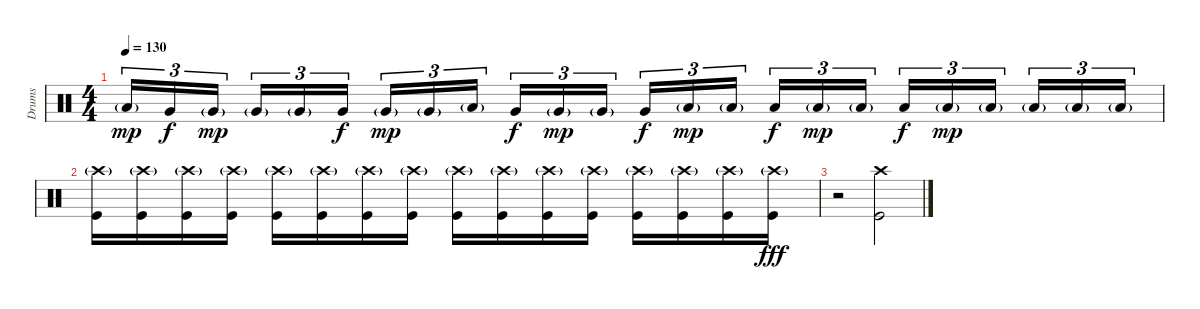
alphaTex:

\track ("Drums" "Drums") {instrument percussion}
\staff {score}
\articulation defaults
\ts (4 4)
\tempo 130
\clef neutral
\ks c "Low Tom (hit)"{g}.16{tu (3 2) dy mp} "Very Low Tom (hit)".16{tu (3 2) dy f} "Very Low Tom (hit)"{g}.16{tu (3 2) dy mp} "Very Low Tom (hit)"{g}.16{tu (3 2)} "Very Low Tom (hit)"{g}.16{tu (3 2)} "Very Low Tom (hit)".16{tu (3 2) dy f} "Very Low Tom (hit)"{g}.16{tu (3 2) dy mp} "Very Low Tom (hit)"{g}.16{tu (3 2)} "Low Floor Tom (hit)"{g}.16{tu (3 2)} "Very Low Tom (hit)".16{tu (3 2) dy f} "Very Low Tom (hit)"{g}.16{tu (3 2) dy mp} "Very Low Tom (hit)"{g}.16{tu (3 2)} "Very Low Tom (hit)".16{tu (3 2) dy f} "Low Floor Tom (hit)"{g}.16{tu (3 2) dy mp} "Low Floor Tom (hit)"{g}.16{tu (3 2)} "Low Floor Tom (hit)".16{tu (3 2) dy f} "Low Floor Tom (hit)"{g}.16{tu (3 2) dy mp} "Low Floor Tom (hit)"{g}.16{tu (3 2)} "Low Floor Tom (hit)".16{tu (3 2) dy f} "Low Floor Tom (hit)"{g}.16{tu (3 2) dy mp} "Low Floor Tom (hit)"{g}.16{tu (3 2)} "Low Floor Tom (hit)"{g}.16{tu (3 2)} "Low Floor Tom (hit)"{g}.16{tu (3 2)} "Low Floor Tom (hit)"{g}.16{tu (3 2)}
|
("Kick (hit)" "Crash high (hit)"{g}).16 ("Kick (hit)" "Crash high (hit)"{g}).16 ("Kick (hit)" "Crash high (hit)"{g}).16 ("Kick (hit)" "Crash high (hit)"{g}).16 ("Kick (hit)" "Crash high (hit)"{g}).16 ("Kick (hit)" "Crash high (hit)"{g}).16 ("Kick (hit)" "Crash high (hit)"{g}).16 ("Kick (hit)" "Crash high (hit)"{g}).16 ("Kick (hit)" "Crash high (hit)"{g}).16 ("Kick (hit)" "Crash high (hit)"{g}).16 ("Kick (hit)" "Crash high (hit)"{g}).16 ("Kick (hit)" "Crash high (hit)"{g}).16 ("Kick (hit)" "Crash high (hit)"{g}).16 ("Kick (hit)" "Crash high (hit)"{g}).16 ("Kick (hit)" "Crash high (hit)"{g}).16 ("Kick (hit)" "Crash high (hit)"{g}).16{dy fff} |
r.2 ("Kick (hit)" "Crash high (hit)").2
